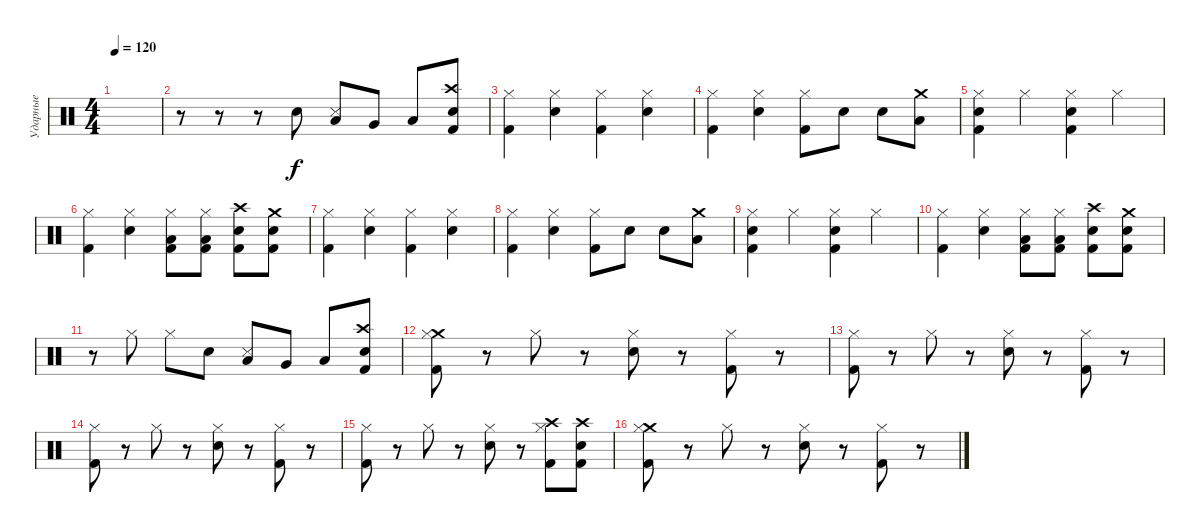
\track ("Ударные" "Ударные") {instrument percussion}
\staff {score}
\articulation defaults
\ts (4 4)
\tempo 120
\clef neutral
\ks c
|
r.8 r.8 r.8 "Electric Snare (hit)".8 ("Low Floor Tom (hit)" "Snare (side stick) 3").8 "Very Low Tom (hit)".8 "Low Tom (hit)".8 ("Crash high (hit)" "Kick (hit) 2" "Electric Snare (hit)").8 |
("Kick (hit) 2" "Hi-Hat (closed)").4 ("Hi-Hat (closed)" "Electric Snare (hit)").4 ("Kick (hit) 2" "Hi-Hat (closed)").4 ("Hi-Hat (closed)" "Electric Snare (hit)").4 |
("Kick (hit) 2" "Hi-Hat (closed)").4 ("Hi-Hat (closed)" "Electric Snare (hit)").4 ("Kick (hit) 2" "Hi-Hat (closed)").8 "Electric Snare (hit)".8 "Electric Snare (hit)".8 ("Low Floor Tom (hit)" "Crash medium (hit)").8 |
("Kick (hit) 2" "Hi-Hat (closed)" "Electric Snare (hit)").4 "Hi-Hat (closed)".4 ("Kick (hit) 2" "Hi-Hat (closed)" "Electric Snare (hit)").4 "Hi-Hat (closed)".4 |
("Kick (hit) 2" "Hi-Hat (closed)").4 ("Hi-Hat (closed)" "Electric Snare (hit)").4 ("Kick (hit) 2" "Hi-Hat (closed)" "Low Floor Tom (hit)").8 ("Kick (hit) 2" "Hi-Hat (closed)" "Low Floor Tom (hit)").8 ("Kick (hit) 2" "Crash high (hit)" "Electric Snare (hit)").8 ("Kick (hit) 2" "Electric Snare (hit)" "Crash medium (hit)").8 |
("Kick (hit) 2" "Hi-Hat (closed)").4 ("Hi-Hat (closed)" "Electric Snare (hit)").4 ("Kick (hit) 2" "Hi-Hat (closed)").4 ("Hi-Hat (closed)" "Electric Snare (hit)").4 |
("Kick (hit) 2" "Hi-Hat (closed)").4 ("Hi-Hat (closed)" "Electric Snare (hit)").4 ("Kick (hit) 2" "Hi-Hat (closed)").8 "Electric Snare (hit)".8 "Electric Snare (hit)".8 ("Low Floor Tom (hit)" "Crash medium (hit)").8 |
("Kick (hit) 2" "Hi-Hat (closed)" "Electric Snare (hit)").4 "Hi-Hat (closed)".4 ("Kick (hit) 2" "Hi-Hat (closed)" "Electric Snare (hit)").4 "Hi-Hat (closed)".4 |
("Kick (hit) 2" "Hi-Hat (closed)").4 ("Hi-Hat (closed)" "Electric Snare (hit)").4 ("Kick (hit) 2" "Hi-Hat (closed)" "Low Floor Tom (hit)").8 ("Kick (hit) 2" "Hi-Hat (closed)" "Low Floor Tom (hit)").8 ("Kick (hit) 2" "Crash high (hit)" "Electric Snare (hit)").8 ("Kick (hit) 2" "Electric Snare (hit)" "Crash medium (hit)").8 |
r.8 "Hi-Hat (closed)".8 "Hi-Hat (closed)".8 "Electric Snare (hit)".8 ("Low Floor Tom (hit)" "Snare (side stick) 3").8 "Very Low Tom (hit)".8 "Low Tom (hit)".8 ("Crash high (hit)" "Kick (hit) 2" "Electric Snare (hit)").8 |
("Crash medium (hit)" "Hi-Hat (closed)" "Kick (hit) 2").8 r.8 "Hi-Hat (closed)".8 r.8 ("Snare (hit) 2" "Hi-Hat (closed)").8 r.8 ("Hi-Hat (closed)" "Kick (hit) 2").8 r.8 |
("Hi-Hat (closed)" "Kick (hit) 2").8 r.8 "Hi-Hat (closed)".8 r.8 ("Snare (hit) 2" "Hi-Hat (closed)").8 r.8 ("Hi-Hat (closed)" "Kick (hit) 2").8 r.8 |
("Hi-Hat (closed)" "Kick (hit) 2").8 r.8 "Hi-Hat (closed)".8 r.8 ("Snare (hit) 2" "Hi-Hat (closed)").8 r.8 ("Hi-Hat (closed)" "Kick (hit) 2").8 r.8 |
("Hi-Hat (closed)" "Kick (hit) 2").8 r.8 "Hi-Hat (closed)".8 r.8 ("Snare (hit) 2" "Hi-Hat (closed)").8 r.8 ("Hi-Hat (closed)" "Crash high (hit)" "Kick (hit) 2").8 ("Snare (hit) 2" "Crash high (hit)" "Kick (hit) 2").8 |
("Crash medium (hit)" "Hi-Hat (closed)" "Kick (hit) 2").8 r.8 "Hi-Hat (closed)".8 r.8 ("Snare (hit) 2" "Hi-Hat (closed)").8 r.8 ("Hi-Hat (closed)" "Kick (hit) 2").8 r.8
